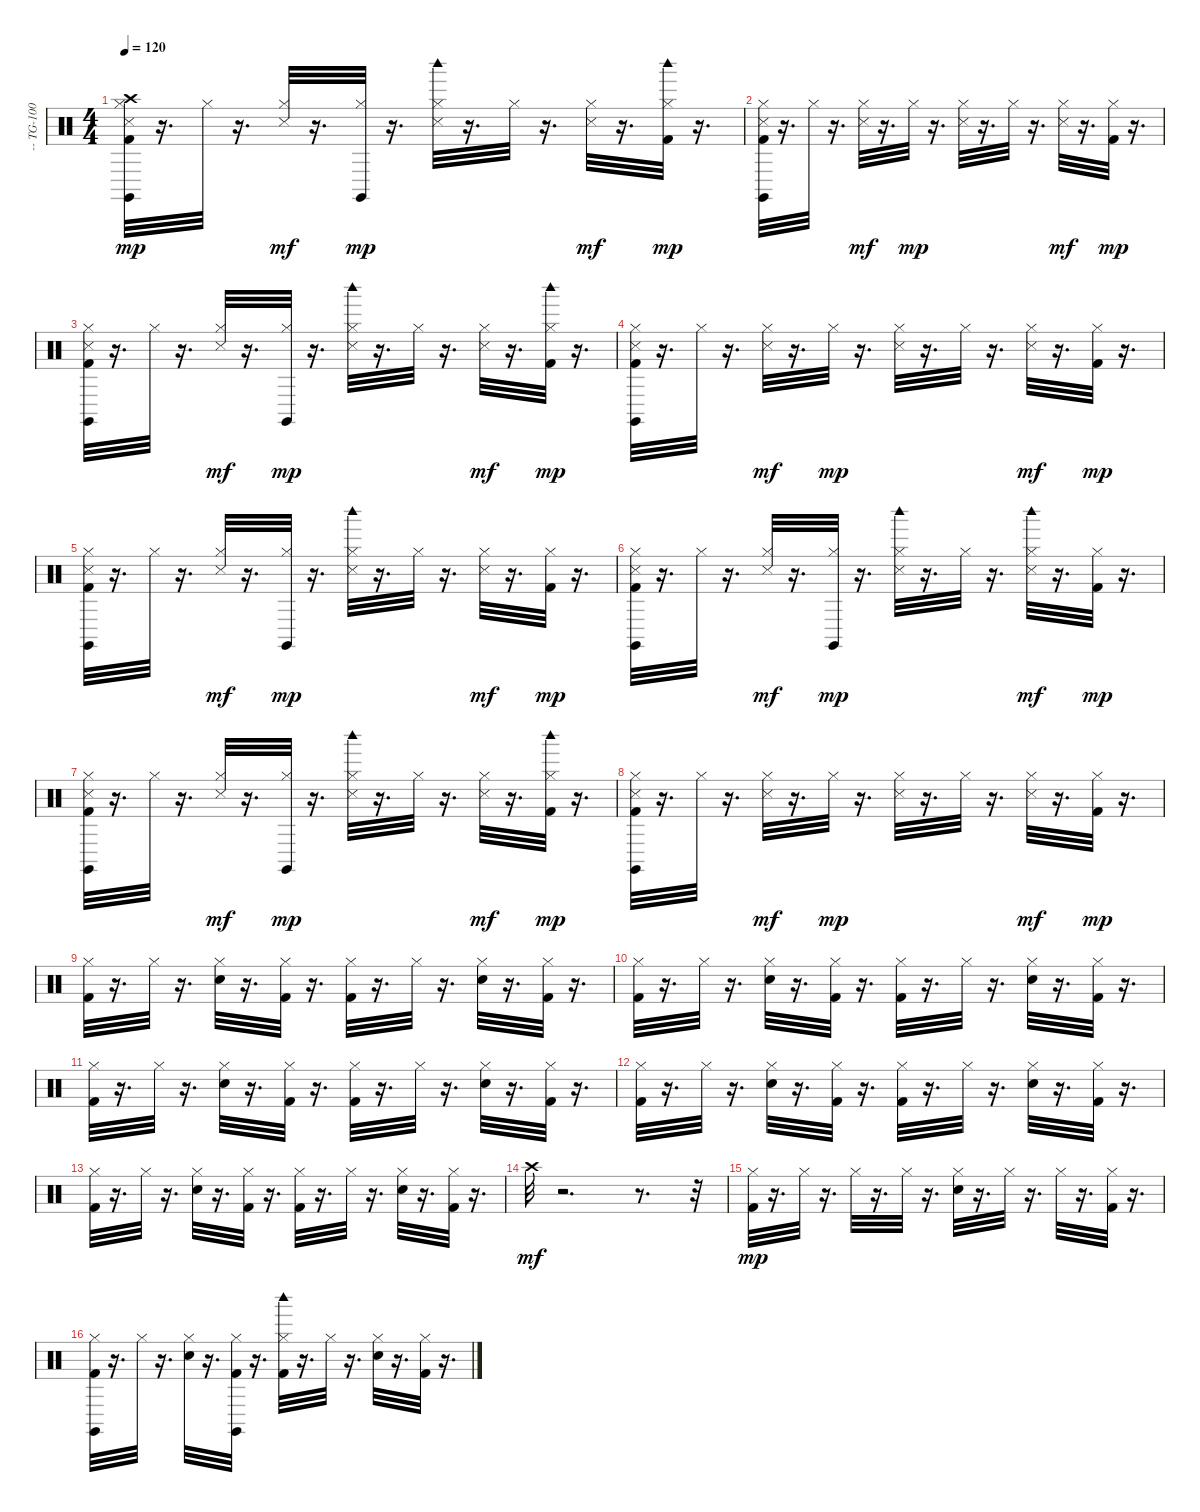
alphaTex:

\track ("-- TG-100 GS Drum --" "-- TG-100 ") {instrument percussion}
\staff {score}
\articulation defaults
\ts (4 4)
\tempo 120
\clef neutral
\ks c
("Hi-Hat (closed)" "Claves (hit)" "Crash high (hit)" "Snare (side stick) 3" "Kick (hit) 2").32{dy mp} r.16{d} "Hi-Hat (closed)".32 r.16{d} ("Snare (side stick) 3" "Hi-Hat (closed)").32{dy mf} r.16{d} ("Hi-Hat (closed)" "Claves (hit)").32{dy mp} r.16{d} ("Hi-Hat (closed)" "Woodblock high (hit)" "Snare (side stick) 3").32 r.16{d} "Hi-Hat (closed)".32 r.16{d} ("Snare (side stick) 3" "Hi-Hat (closed)").32{dy mf} r.16{d} ("Hi-Hat (closed)" "Woodblock high (hit)" "Kick (hit) 2").32{dy mp} r.16{d} |
("Hi-Hat (closed)" "Claves (hit)" "Snare (side stick) 3" "Kick (hit) 2").32 r.16{d} "Hi-Hat (closed)".32 r.16{d} ("Snare (side stick) 3" "Hi-Hat (closed)").32{dy mf} r.16{d} "Hi-Hat (closed)".32{dy mp} r.16{d} ("Hi-Hat (closed)" "Snare (side stick) 3").32 r.16{d} "Hi-Hat (closed)".32 r.16{d} ("Snare (side stick) 3" "Hi-Hat (closed)").32{dy mf} r.16{d} ("Hi-Hat (closed)" "Kick (hit) 2").32{dy mp} r.16{d} |
("Hi-Hat (closed)" "Claves (hit)" "Snare (side stick) 3" "Kick (hit) 2").32 r.16{d} "Hi-Hat (closed)".32 r.16{d} ("Snare (side stick) 3" "Hi-Hat (closed)").32{dy mf} r.16{d} ("Hi-Hat (closed)" "Claves (hit)").32{dy mp} r.16{d} ("Hi-Hat (closed)" "Woodblock high (hit)" "Snare (side stick) 3").32 r.16{d} "Hi-Hat (closed)".32 r.16{d} ("Snare (side stick) 3" "Hi-Hat (closed)").32{dy mf} r.16{d} ("Hi-Hat (closed)" "Woodblock high (hit)" "Kick (hit) 2").32{dy mp} r.16{d} |
("Hi-Hat (closed)" "Claves (hit)" "Snare (side stick) 3" "Kick (hit) 2").32 r.16{d} "Hi-Hat (closed)".32 r.16{d} ("Snare (side stick) 3" "Hi-Hat (closed)").32{dy mf} r.16{d} "Hi-Hat (closed)".32{dy mp} r.16{d} ("Hi-Hat (closed)" "Snare (side stick) 3").32 r.16{d} "Hi-Hat (closed)".32 r.16{d} ("Snare (side stick) 3" "Hi-Hat (closed)").32{dy mf} r.16{d} ("Hi-Hat (closed)" "Kick (hit) 2").32{dy mp} r.16{d} |
("Hi-Hat (closed)" "Claves (hit)" "Snare (side stick) 3" "Kick (hit) 2").32 r.16{d} "Hi-Hat (closed)".32 r.16{d} ("Snare (side stick) 3" "Hi-Hat (closed)").32{dy mf} r.16{d} ("Hi-Hat (closed)" "Claves (hit)").32{dy mp} r.16{d} ("Hi-Hat (closed)" "Woodblock high (hit)" "Snare (side stick) 3").32 r.16{d} "Hi-Hat (closed)".32 r.16{d} ("Snare (side stick) 3" "Hi-Hat (closed)").32{dy mf} r.16{d} ("Hi-Hat (closed)" "Kick (hit) 2").32{dy mp} r.16{d} |
("Hi-Hat (closed)" "Claves (hit)" "Snare (side stick) 3" "Kick (hit) 2").32 r.16{d} "Hi-Hat (closed)".32 r.16{d} ("Snare (side stick) 3" "Hi-Hat (closed)").32{dy mf} r.16{d} ("Hi-Hat (closed)" "Claves (hit)").32{dy mp} r.16{d} ("Hi-Hat (closed)" "Woodblock high (hit)" "Snare (side stick) 3").32 r.16{d} "Hi-Hat (closed)".32 r.16{d} ("Woodblock high (hit)" "Snare (side stick) 3" "Hi-Hat (closed)").32{dy mf} r.16{d} ("Hi-Hat (closed)" "Kick (hit) 2").32{dy mp} r.16{d} |
("Hi-Hat (closed)" "Claves (hit)" "Snare (side stick) 3" "Kick (hit) 2").32 r.16{d} "Hi-Hat (closed)".32 r.16{d} ("Snare (side stick) 3" "Hi-Hat (closed)").32{dy mf} r.16{d} ("Hi-Hat (closed)" "Claves (hit)").32{dy mp} r.16{d} ("Hi-Hat (closed)" "Woodblock high (hit)" "Snare (side stick) 3").32 r.16{d} "Hi-Hat (closed)".32 r.16{d} ("Snare (side stick) 3" "Hi-Hat (closed)").32{dy mf} r.16{d} ("Hi-Hat (closed)" "Woodblock high (hit)" "Kick (hit) 2").32{dy mp} r.16{d} |
("Hi-Hat (closed)" "Claves (hit)" "Snare (side stick) 3" "Kick (hit) 2").32 r.16{d} "Hi-Hat (closed)".32 r.16{d} ("Snare (side stick) 3" "Hi-Hat (closed)").32{dy mf} r.16{d} "Hi-Hat (closed)".32{dy mp} r.16{d} ("Hi-Hat (closed)" "Snare (side stick) 3").32 r.16{d} "Hi-Hat (closed)".32 r.16{d} ("Snare (side stick) 3" "Hi-Hat (closed)").32{dy mf} r.16{d} ("Hi-Hat (closed)" "Kick (hit) 2").32{dy mp} r.16{d} |
("Hi-Hat (closed)" "Kick (hit) 2").32 r.16{d} "Hi-Hat (closed)".32 r.16{d} ("Hi-Hat (closed)" "Snare (hit) 2").32 r.16{d} ("Hi-Hat (closed)" "Kick (hit) 2").32 r.16{d} ("Hi-Hat (closed)" "Kick (hit) 2").32 r.16{d} "Hi-Hat (closed)".32 r.16{d} ("Hi-Hat (closed)" "Snare (hit) 2").32 r.16{d} ("Hi-Hat (closed)" "Kick (hit) 2").32 r.16{d} |
("Hi-Hat (closed)" "Kick (hit) 2").32 r.16{d} "Hi-Hat (closed)".32 r.16{d} ("Hi-Hat (closed)" "Snare (hit) 2").32 r.16{d} ("Hi-Hat (closed)" "Kick (hit) 2").32 r.16{d} ("Hi-Hat (closed)" "Kick (hit) 2").32 r.16{d} "Hi-Hat (closed)".32 r.16{d} ("Hi-Hat (closed)" "Snare (hit) 2").32 r.16{d} ("Hi-Hat (closed)" "Kick (hit) 2").32 r.16{d} |
("Hi-Hat (closed)" "Kick (hit) 2").32 r.16{d} "Hi-Hat (closed)".32 r.16{d} ("Hi-Hat (closed)" "Snare (hit) 2").32 r.16{d} ("Hi-Hat (closed)" "Kick (hit) 2").32 r.16{d} ("Hi-Hat (closed)" "Kick (hit) 2").32 r.16{d} "Hi-Hat (closed)".32 r.16{d} ("Hi-Hat (closed)" "Snare (hit) 2").32 r.16{d} ("Hi-Hat (closed)" "Kick (hit) 2").32 r.16{d} |
("Hi-Hat (closed)" "Kick (hit) 2").32 r.16{d} "Hi-Hat (closed)".32 r.16{d} ("Hi-Hat (closed)" "Snare (hit) 2").32 r.16{d} ("Hi-Hat (closed)" "Kick (hit) 2").32 r.16{d} ("Hi-Hat (closed)" "Kick (hit) 2").32 r.16{d} "Hi-Hat (closed)".32 r.16{d} ("Hi-Hat (closed)" "Snare (hit) 2").32 r.16{d} ("Hi-Hat (closed)" "Kick (hit) 2").32 r.16{d} |
("Hi-Hat (closed)" "Kick (hit) 2").32 r.16{d} "Hi-Hat (closed)".32 r.16{d} ("Hi-Hat (closed)" "Snare (hit) 2").32 r.16{d} ("Hi-Hat (closed)" "Kick (hit) 2").32 r.16{d} ("Hi-Hat (closed)" "Kick (hit) 2").32 r.16{d} "Hi-Hat (closed)".32 r.16{d} ("Hi-Hat (closed)" "Snare (hit) 2").32 r.16{d} ("Hi-Hat (closed)" "Kick (hit) 2").32 r.16{d} |
"Crash high (hit)".32{dy mf} r.2{d} r.8{d} r.32 |
("Hi-Hat (closed)" "Kick (hit) 2").32{dy mp} r.16{d} "Hi-Hat (closed)".32 r.16{d} "Hi-Hat (closed)".32 r.16{d} "Hi-Hat (closed)".32 r.16{d} ("Hi-Hat (closed)" "Snare (hit) 2").32 r.16{d} "Hi-Hat (closed)".32 r.16{d} "Hi-Hat (closed)".32 r.16{d} ("Hi-Hat (closed)" "Kick (hit) 2").32 r.16{d} |
("Hi-Hat (closed)" "Claves (hit)" "Kick (hit) 2").32 r.16{d} "Hi-Hat (closed)".32 r.16{d} ("Hi-Hat (closed)" "Snare (hit) 2").32 r.16{d} ("Hi-Hat (closed)" "Claves (hit)" "Kick (hit) 2").32 r.16{d} ("Hi-Hat (closed)" "Woodblock high (hit)" "Kick (hit) 2").32 r.16{d} "Hi-Hat (closed)".32 r.16{d} ("Hi-Hat (closed)" "Snare (hit) 2").32 r.16{d} ("Hi-Hat (closed)" "Kick (hit) 2").32 r.16{d}
